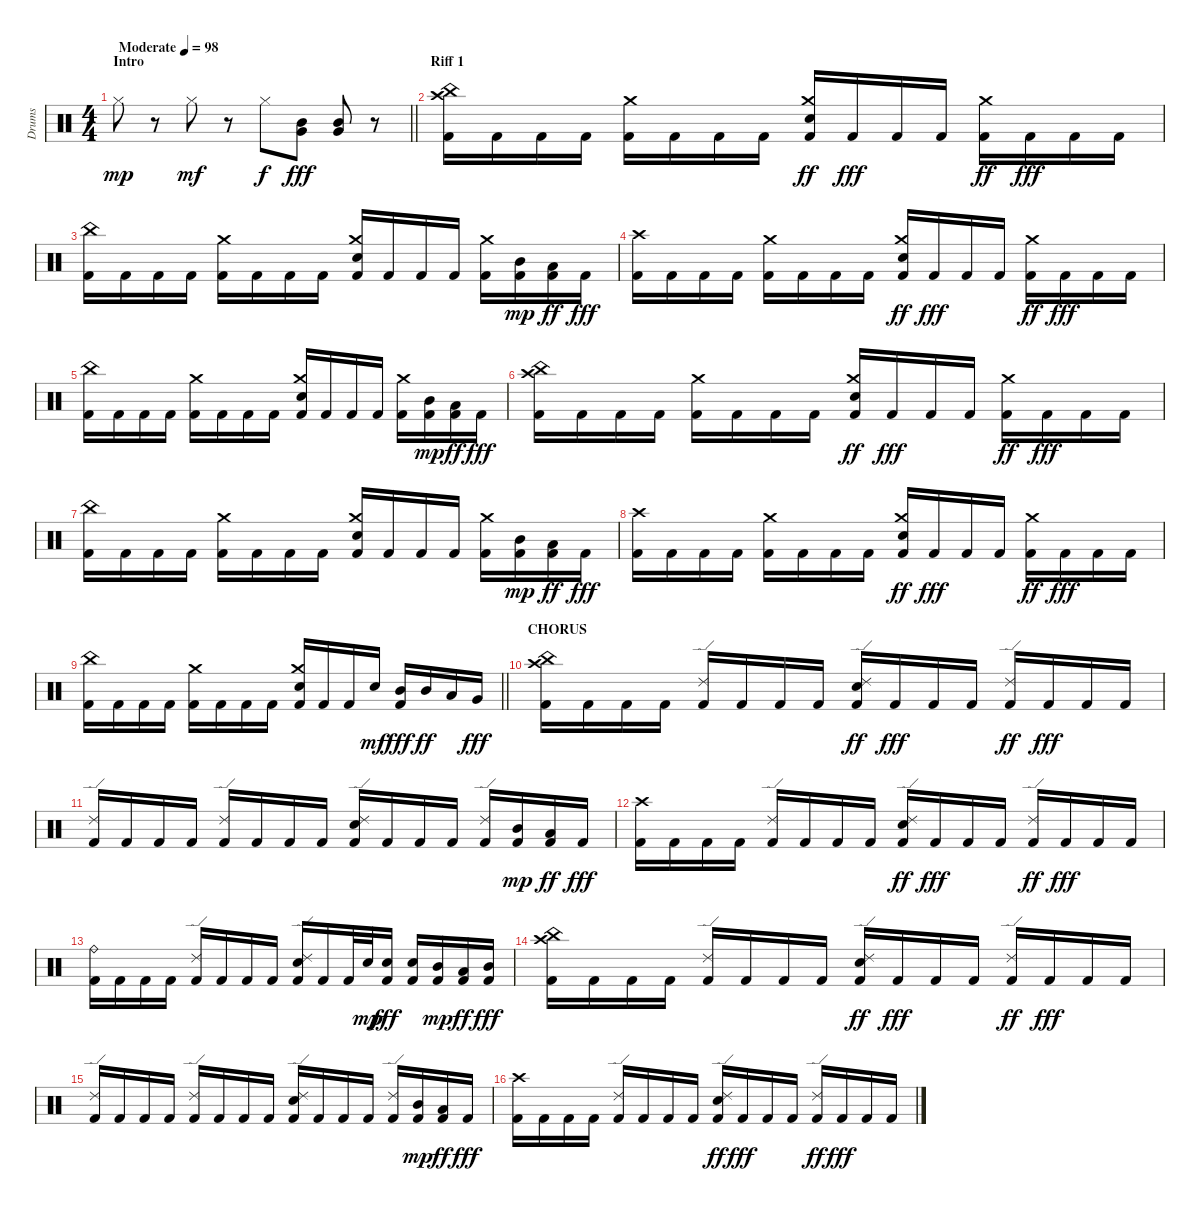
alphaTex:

\track ("Drums" "Drums") {instrument percussion}
\staff {score}
\articulation defaults
\ts (4 4)
\section ("" "Intro")
\tempo (98 "Moderate")
\clef neutral
\barLineRight lightlight
\ks c "Hi-Hat (closed)".8{dy mp}
r.8 "Hi-Hat (closed)".8{dy mf} r.8 "Hi-Hat (closed)".8{dy f} ("Very Low Tom (hit)" "Mid Tom (hit)").8{dy fff} ("Very Low Tom (hit)" "Mid Tom (hit)").8 r.8 |
\section ("" "Riff 1")
("Kick (hit) 2" "Crash high (hit)" "China (hit)").16 "Kick (hit) 2".16 "Kick (hit) 2".16 "Kick (hit) 2".16 ("Kick (hit) 2" "Crash medium (hit)").16 "Kick (hit) 2".16 "Kick (hit) 2".16 "Kick (hit) 2".16 ("Kick (hit) 2" "Snare (hit) 2" "Crash medium (hit)").16{dy ff} "Kick (hit) 2".16{dy fff} "Kick (hit) 2".16 "Kick (hit) 2".16 ("Kick (hit) 2" "Crash medium (hit)").16{dy ff} "Kick (hit) 2".16{dy fff} "Kick (hit) 2".16 "Kick (hit) 2".16 |
("Kick (hit) 2" "China (hit)").16 "Kick (hit) 2".16 "Kick (hit) 2".16 "Kick (hit) 2".16 ("Kick (hit) 2" "Crash medium (hit)").16 "Kick (hit) 2".16 "Kick (hit) 2".16 "Kick (hit) 2".16 ("Kick (hit) 2" "Snare (hit) 2" "Crash medium (hit)").16 "Kick (hit) 2".16 "Kick (hit) 2".16 "Kick (hit) 2".16 ("Kick (hit) 2" "Crash medium (hit)").16 ("Kick (hit) 2" "Mid Tom (hit)").16{dy mp} ("Kick (hit) 2" "Low Tom (hit)").16{dy ff} "Kick (hit) 2".16{dy fff} |
("Kick (hit) 2" "Crash high (hit)").16 "Kick (hit) 2".16 "Kick (hit) 2".16 "Kick (hit) 2".16 ("Kick (hit) 2" "Crash medium (hit)").16 "Kick (hit) 2".16 "Kick (hit) 2".16 "Kick (hit) 2".16 ("Kick (hit) 2" "Snare (hit) 2" "Crash medium (hit)").16{dy ff} "Kick (hit) 2".16{dy fff} "Kick (hit) 2".16 "Kick (hit) 2".16 ("Kick (hit) 2" "Crash medium (hit)").16{dy ff} "Kick (hit) 2".16{dy fff} "Kick (hit) 2".16 "Kick (hit) 2".16 |
("Kick (hit) 2" "China (hit)").16 "Kick (hit) 2".16 "Kick (hit) 2".16 "Kick (hit) 2".16 ("Kick (hit) 2" "Crash medium (hit)").16 "Kick (hit) 2".16 "Kick (hit) 2".16 "Kick (hit) 2".16 ("Kick (hit) 2" "Snare (hit) 2" "Crash medium (hit)").16 "Kick (hit) 2".16 "Kick (hit) 2".16 "Kick (hit) 2".16 ("Kick (hit) 2" "Crash medium (hit)").16 ("Kick (hit) 2" "Mid Tom (hit)").16{dy mp} ("Kick (hit) 2" "Low Tom (hit)").16{dy ff} "Kick (hit) 2".16{dy fff} |
("Kick (hit) 2" "Crash high (hit)" "China (hit)").16 "Kick (hit) 2".16 "Kick (hit) 2".16 "Kick (hit) 2".16 ("Kick (hit) 2" "Crash medium (hit)").16 "Kick (hit) 2".16 "Kick (hit) 2".16 "Kick (hit) 2".16 ("Kick (hit) 2" "Snare (hit) 2" "Crash medium (hit)").16{dy ff} "Kick (hit) 2".16{dy fff} "Kick (hit) 2".16 "Kick (hit) 2".16 ("Kick (hit) 2" "Crash medium (hit)").16{dy ff} "Kick (hit) 2".16{dy fff} "Kick (hit) 2".16 "Kick (hit) 2".16 |
("Kick (hit) 2" "China (hit)").16 "Kick (hit) 2".16 "Kick (hit) 2".16 "Kick (hit) 2".16 ("Kick (hit) 2" "Crash medium (hit)").16 "Kick (hit) 2".16 "Kick (hit) 2".16 "Kick (hit) 2".16 ("Kick (hit) 2" "Snare (hit) 2" "Crash medium (hit)").16 "Kick (hit) 2".16 "Kick (hit) 2".16 "Kick (hit) 2".16 ("Kick (hit) 2" "Crash medium (hit)").16 ("Kick (hit) 2" "Mid Tom (hit)").16{dy mp} ("Kick (hit) 2" "Low Tom (hit)").16{dy ff} "Kick (hit) 2".16{dy fff} |
("Kick (hit) 2" "Crash high (hit)").16 "Kick (hit) 2".16 "Kick (hit) 2".16 "Kick (hit) 2".16 ("Kick (hit) 2" "Crash medium (hit)").16 "Kick (hit) 2".16 "Kick (hit) 2".16 "Kick (hit) 2".16 ("Kick (hit) 2" "Snare (hit) 2" "Crash medium (hit)").16{dy ff} "Kick (hit) 2".16{dy fff} "Kick (hit) 2".16 "Kick (hit) 2".16 ("Kick (hit) 2" "Crash medium (hit)").16{dy ff} "Kick (hit) 2".16{dy fff} "Kick (hit) 2".16 "Kick (hit) 2".16 |
\barLineRight lightlight
("Kick (hit) 2" "China (hit)").16 "Kick (hit) 2".16 "Kick (hit) 2".16 "Kick (hit) 2".16 ("Kick (hit) 2" "Crash medium (hit)").16 "Kick (hit) 2".16 "Kick (hit) 2".16 "Kick (hit) 2".16 ("Kick (hit) 2" "Snare (hit) 2" "Crash medium (hit)").16 "Kick (hit) 2".16 "Kick (hit) 2".16 "Snare (hit) 2".16{dy mf} ("Kick (hit) 2" "Mid Tom (hit)").16{dy fff} "Mid Tom (hit)".16{dy ff} "Low Tom (hit)".16 "Very Low Tom (hit)".16{dy fff} |
\section ("" "CHORUS")
("Kick (hit) 2" "Crash high (hit)" "China (hit)").16 "Kick (hit) 2".16 "Kick (hit) 2".16 "Kick (hit) 2".16 ("Kick (hit) 2" "Ride (edge) 2").16 "Kick (hit) 2".16 "Kick (hit) 2".16 "Kick (hit) 2".16 ("Kick (hit) 2" "Snare (hit) 2" "Ride (edge) 2").16{dy ff} "Kick (hit) 2".16{dy fff} "Kick (hit) 2".16 "Kick (hit) 2".16 ("Kick (hit) 2" "Ride (edge) 2").16{dy ff} "Kick (hit) 2".16{dy fff} "Kick (hit) 2".16 "Kick (hit) 2".16 |
("Kick (hit) 2" "Ride (edge) 2").16 "Kick (hit) 2".16 "Kick (hit) 2".16 "Kick (hit) 2".16 ("Kick (hit) 2" "Ride (edge) 2").16 "Kick (hit) 2".16 "Kick (hit) 2".16 "Kick (hit) 2".16 ("Kick (hit) 2" "Snare (hit) 2" "Ride (edge) 2").16 "Kick (hit) 2".16 "Kick (hit) 2".16 "Kick (hit) 2".16 ("Kick (hit) 2" "Ride (edge) 2").16 ("Kick (hit) 2" "Mid Tom (hit)").16{dy mp} ("Kick (hit) 2" "Low Tom (hit)").16{dy ff} "Kick (hit) 2".16{dy fff} |
("Kick (hit) 2" "Crash high (hit)").16 "Kick (hit) 2".16 "Kick (hit) 2".16 "Kick (hit) 2".16 ("Kick (hit) 2" "Ride (edge) 2").16 "Kick (hit) 2".16 "Kick (hit) 2".16 "Kick (hit) 2".16 ("Kick (hit) 2" "Snare (hit) 2" "Ride (edge) 2").16{dy ff} "Kick (hit) 2".16{dy fff} "Kick (hit) 2".16 "Kick (hit) 2".16 ("Kick (hit) 2" "Ride (edge) 2").16{dy ff} "Kick (hit) 2".16{dy fff} "Kick (hit) 2".16 "Kick (hit) 2".16 |
("Kick (hit) 2" "Ride (bell)").16 "Kick (hit) 2".16 "Kick (hit) 2".16 "Kick (hit) 2".16 ("Kick (hit) 2" "Ride (edge) 2").16 "Kick (hit) 2".16 "Kick (hit) 2".16 "Kick (hit) 2".16 ("Kick (hit) 2" "Snare (hit) 2" "Ride (edge) 2").16 "Kick (hit) 2".16 "Kick (hit) 2".32 "Snare (hit) 2".32{dy mp} ("Kick (hit) 2" "Snare (hit) 2").16{dy fff} ("Kick (hit) 2" "Snare (hit) 2").16 ("Kick (hit) 2" "Mid Tom (hit)").16{dy mp} ("Kick (hit) 2" "Low Tom (hit)").16{dy ff} ("Kick (hit) 2" "Mid Tom (hit)").16{dy fff} |
("Kick (hit) 2" "Crash high (hit)" "China (hit)").16 "Kick (hit) 2".16 "Kick (hit) 2".16 "Kick (hit) 2".16 ("Kick (hit) 2" "Ride (edge) 2").16 "Kick (hit) 2".16 "Kick (hit) 2".16 "Kick (hit) 2".16 ("Kick (hit) 2" "Snare (hit) 2" "Ride (edge) 2").16{dy ff} "Kick (hit) 2".16{dy fff} "Kick (hit) 2".16 "Kick (hit) 2".16 ("Kick (hit) 2" "Ride (edge) 2").16{dy ff} "Kick (hit) 2".16{dy fff} "Kick (hit) 2".16 "Kick (hit) 2".16 |
("Kick (hit) 2" "Ride (edge) 2").16 "Kick (hit) 2".16 "Kick (hit) 2".16 "Kick (hit) 2".16 ("Kick (hit) 2" "Ride (edge) 2").16 "Kick (hit) 2".16 "Kick (hit) 2".16 "Kick (hit) 2".16 ("Kick (hit) 2" "Snare (hit) 2" "Ride (edge) 2").16 "Kick (hit) 2".16 "Kick (hit) 2".16 "Kick (hit) 2".16 ("Kick (hit) 2" "Ride (edge) 2").16 ("Kick (hit) 2" "Mid Tom (hit)").16{dy mp} ("Kick (hit) 2" "Low Tom (hit)").16{dy ff} "Kick (hit) 2".16{dy fff} |
("Kick (hit) 2" "Crash high (hit)").16 "Kick (hit) 2".16 "Kick (hit) 2".16 "Kick (hit) 2".16 ("Kick (hit) 2" "Ride (edge) 2").16 "Kick (hit) 2".16 "Kick (hit) 2".16 "Kick (hit) 2".16 ("Kick (hit) 2" "Snare (hit) 2" "Ride (edge) 2").16{dy ff} "Kick (hit) 2".16{dy fff} "Kick (hit) 2".16 "Kick (hit) 2".16 ("Kick (hit) 2" "Ride (edge) 2").16{dy ff} "Kick (hit) 2".16{dy fff} "Kick (hit) 2".16 "Kick (hit) 2".16
